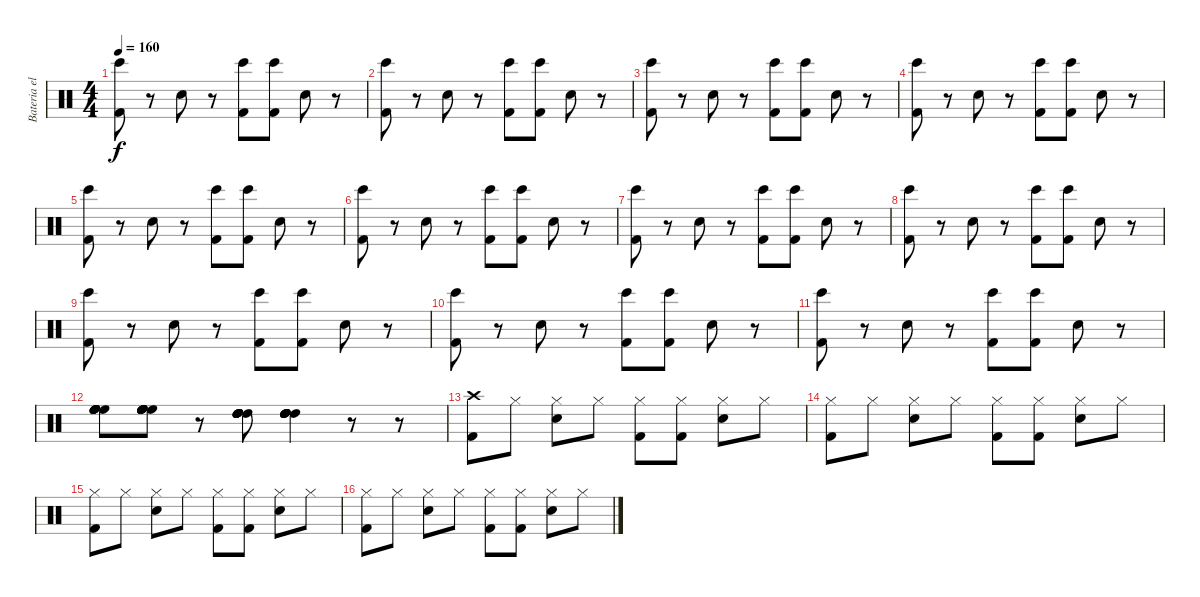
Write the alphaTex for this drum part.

\track ("Bateria electrica" "Bateria el") {instrument percussion}
\staff {score}
\articulation defaults
\ts (4 4)
\tempo 160
\clef neutral
\ks c
("Bongo High (hit)" "Kick (hit) 2").8{dy f} r.8 "Snare (hit) 2".8 r.8 ("Bongo High (hit)" "Kick (hit) 2").8 ("Bongo High (hit)" "Kick (hit) 2").8 "Snare (hit) 2".8 r.8 |
("Bongo High (hit)" "Kick (hit) 2").8 r.8 "Snare (hit) 2".8 r.8 ("Bongo High (hit)" "Kick (hit) 2").8 ("Bongo High (hit)" "Kick (hit) 2").8 "Snare (hit) 2".8 r.8 |
("Bongo High (hit)" "Kick (hit) 2").8 r.8 "Snare (hit) 2".8 r.8 ("Bongo High (hit)" "Kick (hit) 2").8 ("Bongo High (hit)" "Kick (hit) 2").8 "Snare (hit) 2".8 r.8 |
("Bongo High (hit)" "Kick (hit) 2").8 r.8 "Snare (hit) 2".8 r.8 ("Bongo High (hit)" "Kick (hit) 2").8 ("Bongo High (hit)" "Kick (hit) 2").8 "Snare (hit) 2".8 r.8 |
("Bongo High (hit)" "Kick (hit) 2").8 r.8 "Snare (hit) 2".8 r.8 ("Bongo High (hit)" "Kick (hit) 2").8 ("Bongo High (hit)" "Kick (hit) 2").8 "Snare (hit) 2".8 r.8 |
("Bongo High (hit)" "Kick (hit) 2").8 r.8 "Snare (hit) 2".8 r.8 ("Bongo High (hit)" "Kick (hit) 2").8 ("Bongo High (hit)" "Kick (hit) 2").8 "Snare (hit) 2".8 r.8 |
("Bongo High (hit)" "Kick (hit) 2").8 r.8 "Snare (hit) 2".8 r.8 ("Bongo High (hit)" "Kick (hit) 2").8 ("Bongo High (hit)" "Kick (hit) 2").8 "Snare (hit) 2".8 r.8 |
("Bongo High (hit)" "Kick (hit) 2").8 r.8 "Snare (hit) 2".8 r.8 ("Bongo High (hit)" "Kick (hit) 2").8 ("Bongo High (hit)" "Kick (hit) 2").8 "Snare (hit) 2".8 r.8 |
("Bongo High (hit)" "Kick (hit) 2").8 r.8 "Snare (hit) 2".8 r.8 ("Bongo High (hit)" "Kick (hit) 2").8 ("Bongo High (hit)" "Kick (hit) 2").8 "Snare (hit) 2".8 r.8 |
("Bongo High (hit)" "Kick (hit) 2").8 r.8 "Snare (hit) 2".8 r.8 ("Bongo High (hit)" "Kick (hit) 2").8 ("Bongo High (hit)" "Kick (hit) 2").8 "Snare (hit) 2".8 r.8 |
("Bongo High (hit)" "Kick (hit) 2").8 r.8 "Snare (hit) 2".8 r.8 ("Bongo High (hit)" "Kick (hit) 2").8 ("Bongo High (hit)" "Kick (hit) 2").8 "Snare (hit) 2".8 r.8 |
("High Floor Tom (hit)" "High Floor Tom (hit)" "High Floor Tom (hit)" "High Floor Tom (hit)" "High Floor Tom (hit)" "High Floor Tom (hit)").8 ("High Floor Tom (hit)" "High Floor Tom (hit)" "High Floor Tom (hit)" "High Floor Tom (hit)" "High Floor Tom (hit)" "High Floor Tom (hit)").8 r.8 ("High Tom (hit)" "High Tom (hit)" "High Tom (hit)" "High Tom (hit)" "High Tom (hit)" "High Tom (hit)").8 ("High Tom (hit)" "High Tom (hit)" "High Tom (hit)" "High Tom (hit)" "High Tom (hit)" "High Tom (hit)").4 r.8 r.8 |
("Crash high (hit)" "Kick (hit) 2").8 "Hi-Hat (closed)".8 ("Hi-Hat (closed)" "Snare (hit) 2").8 "Hi-Hat (closed)".8 ("Hi-Hat (closed)" "Kick (hit) 2").8 ("Hi-Hat (closed)" "Kick (hit) 2").8 ("Hi-Hat (closed)" "Snare (hit) 2").8 "Hi-Hat (closed)".8 |
("Hi-Hat (closed)" "Kick (hit) 2").8 "Hi-Hat (closed)".8 ("Hi-Hat (closed)" "Snare (hit) 2").8 "Hi-Hat (closed)".8 ("Hi-Hat (closed)" "Kick (hit) 2").8 ("Hi-Hat (closed)" "Kick (hit) 2").8 ("Hi-Hat (closed)" "Snare (hit) 2").8 "Hi-Hat (closed)".8 |
("Hi-Hat (closed)" "Kick (hit) 2").8 "Hi-Hat (closed)".8 ("Hi-Hat (closed)" "Snare (hit) 2").8 "Hi-Hat (closed)".8 ("Hi-Hat (closed)" "Kick (hit) 2").8 ("Hi-Hat (closed)" "Kick (hit) 2").8 ("Hi-Hat (closed)" "Snare (hit) 2").8 "Hi-Hat (closed)".8 |
("Hi-Hat (closed)" "Kick (hit) 2").8 "Hi-Hat (closed)".8 ("Hi-Hat (closed)" "Snare (hit) 2").8 "Hi-Hat (closed)".8 ("Hi-Hat (closed)" "Kick (hit) 2").8 ("Hi-Hat (closed)" "Kick (hit) 2").8 ("Hi-Hat (closed)" "Snare (hit) 2").8 "Hi-Hat (closed)".8
